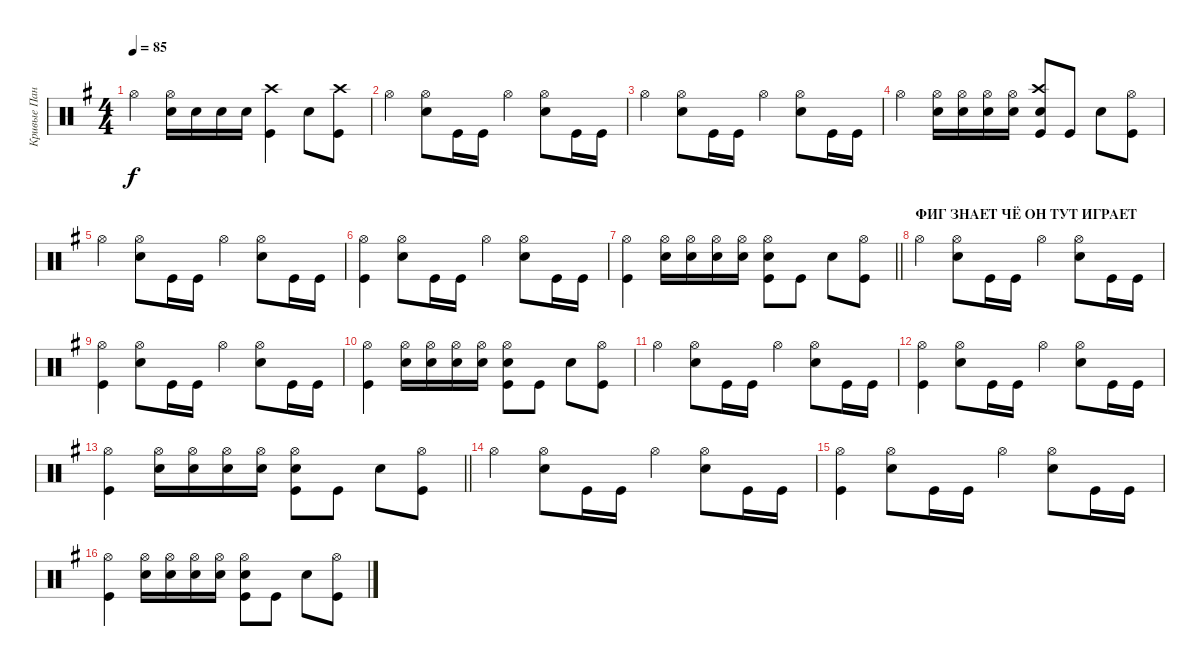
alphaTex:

\track ("Кривые Панковские Ударки (CPU)" "Кривые Пан") {instrument percussion}
\staff {score}
\articulation defaults
\ts (4 4)
\tempo 85
\clef neutral
\ks eminor "Hi-Hat (open)".4{dy f}
("Snare (hit) 2" "Hi-Hat (open)").16 "Snare (hit) 2".16 "Snare (hit) 2".16 "Snare (hit) 2".16 ("Crash high (hit)" "Kick (hit)").4 "Snare (hit) 2".8 ("Crash high (hit)" "Kick (hit)").8 |
"Hi-Hat (open)".4 ("Snare (hit) 2" "Hi-Hat (open)").8 "Kick (hit)".16 "Kick (hit)".16 "Hi-Hat (open)".4 ("Snare (hit) 2" "Hi-Hat (open)").8 "Kick (hit)".16 "Kick (hit)".16 |
"Hi-Hat (open)".4 ("Snare (hit) 2" "Hi-Hat (open)").8 "Kick (hit)".16 "Kick (hit)".16 "Hi-Hat (open)".4 ("Snare (hit) 2" "Hi-Hat (open)").8 "Kick (hit)".16 "Kick (hit)".16 |
"Hi-Hat (open)".4 ("Hi-Hat (open)" "Snare (hit) 2").16 ("Hi-Hat (open)" "Snare (hit) 2").16 ("Hi-Hat (open)" "Snare (hit) 2").16 ("Hi-Hat (open)" "Snare (hit) 2").16 ("Crash high (hit)" "Snare (hit) 2" "Kick (hit)").8 "Kick (hit)".8 "Snare (hit) 2".8 ("Hi-Hat (open)" "Kick (hit)").8 |
"Hi-Hat (open)".4 ("Hi-Hat (open)" "Snare (hit) 2").8 "Kick (hit)".16 "Kick (hit)".16 "Hi-Hat (open)".4 ("Hi-Hat (open)" "Snare (hit) 2").8 "Kick (hit)".16 "Kick (hit)".16 |
("Hi-Hat (open)" "Kick (hit)").4 ("Hi-Hat (open)" "Snare (hit) 2").8 "Kick (hit)".16 "Kick (hit)".16 "Hi-Hat (open)".4 ("Hi-Hat (open)" "Snare (hit) 2").8 "Kick (hit)".16 "Kick (hit)".16 |
\barLineRight lightlight
("Hi-Hat (open)" "Kick (hit)").4 ("Hi-Hat (open)" "Snare (hit) 2").16 ("Hi-Hat (open)" "Snare (hit) 2").16 ("Hi-Hat (open)" "Snare (hit) 2").16 ("Hi-Hat (open)" "Snare (hit) 2").16 ("Hi-Hat (open)" "Snare (hit) 2" "Kick (hit)").8 "Kick (hit)".8 "Snare (hit) 2".8 ("Hi-Hat (open)" "Kick (hit)").8 |
\section ("" "ФИГ ЗНАЕТ ЧЁ ОН ТУТ ИГРАЕТ")
"Hi-Hat (open)".4 ("Hi-Hat (open)" "Snare (hit) 2").8 "Kick (hit)".16 "Kick (hit)".16 "Hi-Hat (open)".4 ("Hi-Hat (open)" "Snare (hit) 2").8 "Kick (hit)".16 "Kick (hit)".16 |
("Hi-Hat (open)" "Kick (hit)").4 ("Hi-Hat (open)" "Snare (hit) 2").8 "Kick (hit)".16 "Kick (hit)".16 "Hi-Hat (open)".4 ("Hi-Hat (open)" "Snare (hit) 2").8 "Kick (hit)".16 "Kick (hit)".16 |
("Hi-Hat (open)" "Kick (hit)").4 ("Hi-Hat (open)" "Snare (hit) 2").16 ("Hi-Hat (open)" "Snare (hit) 2").16 ("Hi-Hat (open)" "Snare (hit) 2").16 ("Hi-Hat (open)" "Snare (hit) 2").16 ("Hi-Hat (open)" "Snare (hit) 2" "Kick (hit)").8 "Kick (hit)".8 "Snare (hit) 2".8 ("Hi-Hat (open)" "Kick (hit)").8 |
"Hi-Hat (open)".4 ("Hi-Hat (open)" "Snare (hit) 2").8 "Kick (hit)".16 "Kick (hit)".16 "Hi-Hat (open)".4 ("Hi-Hat (open)" "Snare (hit) 2").8 "Kick (hit)".16 "Kick (hit)".16 |
("Hi-Hat (open)" "Kick (hit)").4 ("Hi-Hat (open)" "Snare (hit) 2").8 "Kick (hit)".16 "Kick (hit)".16 "Hi-Hat (open)".4 ("Hi-Hat (open)" "Snare (hit) 2").8 "Kick (hit)".16 "Kick (hit)".16 |
\barLineRight lightlight
("Hi-Hat (open)" "Kick (hit)").4 ("Hi-Hat (open)" "Snare (hit) 2").16 ("Hi-Hat (open)" "Snare (hit) 2").16 ("Hi-Hat (open)" "Snare (hit) 2").16 ("Hi-Hat (open)" "Snare (hit) 2").16 ("Hi-Hat (open)" "Snare (hit) 2" "Kick (hit)").8 "Kick (hit)".8 "Snare (hit) 2".8 ("Hi-Hat (open)" "Kick (hit)").8 |
"Hi-Hat (open)".4 ("Hi-Hat (open)" "Snare (hit) 2").8 "Kick (hit)".16 "Kick (hit)".16 "Hi-Hat (open)".4 ("Hi-Hat (open)" "Snare (hit) 2").8 "Kick (hit)".16 "Kick (hit)".16 |
("Hi-Hat (open)" "Kick (hit)").4 ("Hi-Hat (open)" "Snare (hit) 2").8 "Kick (hit)".16 "Kick (hit)".16 "Hi-Hat (open)".4 ("Hi-Hat (open)" "Snare (hit) 2").8 "Kick (hit)".16 "Kick (hit)".16 |
("Hi-Hat (open)" "Kick (hit)").4 ("Hi-Hat (open)" "Snare (hit) 2").16 ("Hi-Hat (open)" "Snare (hit) 2").16 ("Hi-Hat (open)" "Snare (hit) 2").16 ("Hi-Hat (open)" "Snare (hit) 2").16 ("Hi-Hat (open)" "Snare (hit) 2" "Kick (hit)").8 "Kick (hit)".8 "Snare (hit) 2".8 ("Hi-Hat (open)" "Kick (hit)").8
